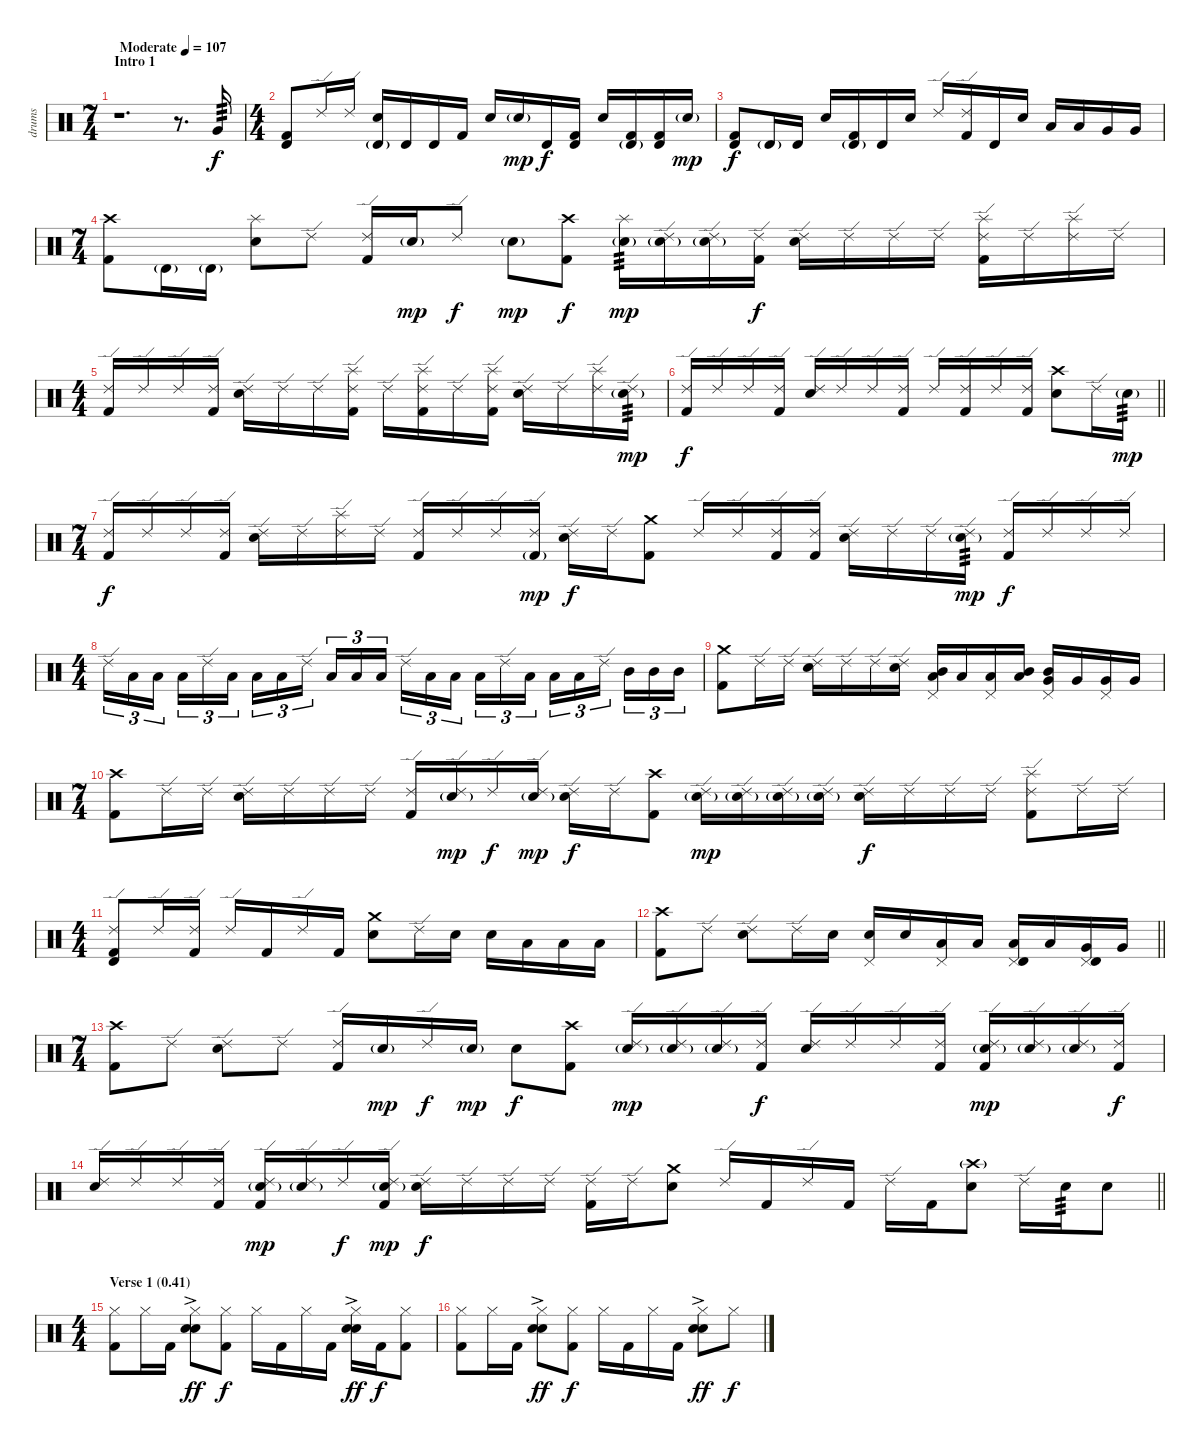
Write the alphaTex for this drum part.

\track ("drums" "drums") {instrument percussion}
\staff {score}
\articulation defaults
\ts (7 4)
\section ("" "Intro 1")
\tempo (107 "Moderate")
\clef neutral
\ks c
r.1{d dy f} r.8{d} "Very Low Tom (hit)".16{tp 3} |
\ts (4 4)
("Timbale high (hit)" "Kick (hit) 2").8 "Ride (edge) 2".16 "Ride (edge) 2".16 ("Timbale high (hit)"{g} "Electric Snare (hit)").16 "Timbale high (hit)".16 "Timbale high (hit)".16 "Kick (hit) 2".16 "Electric Snare (hit)".16 "Electric Snare (hit)"{g}.16{dy mp} "Timbale high (hit)".16{dy f} ("Timbale high (hit)" "Kick (hit) 2").16 "Electric Snare (hit)".16 ("Timbale high (hit)"{g} "Kick (hit) 2").16 ("Timbale high (hit)" "Kick (hit) 2").16 "Electric Snare (hit)"{g}.16{dy mp} |
("Timbale high (hit)" "Kick (hit) 2").8{dy f} "Timbale high (hit)"{g}.16 "Timbale high (hit)".16 "Electric Snare (hit)".16 ("Timbale high (hit)"{g} "Kick (hit) 2").16 "Timbale high (hit)".16 "Electric Snare (hit)".16 "Ride (edge) 2".16 ("Ride (edge) 2" "Kick (hit) 2").16 "Timbale high (hit)".16 "Electric Snare (hit)".16 "Low Tom (hit)".16 "Low Tom (hit)".16 "Very Low Tom (hit)".16 "Very Low Tom (hit)".16 |
\ts (7 4)
("Crash high (hit)" "Kick (hit) 2").8 "Timbale high (hit)"{g}.16 "Timbale high (hit)"{g}.16 ("Splash (hit)" "Electric Snare (hit)").8 "Ride (edge) 2".8 ("Ride (edge) 2" "Kick (hit) 2").16 "Electric Snare (hit)"{g}.16{dy mp} "Ride (edge) 2".8{dy f} "Electric Snare (hit)"{g}.8{dy mp} ("Crash high (hit)" "Kick (hit) 2").8{dy f} ("Splash (hit)" "Electric Snare (hit)"{g}).16{tp 3 dy mp} ("Ride (edge) 2" "Electric Snare (hit)"{g}).16 ("Ride (edge) 2" "Electric Snare (hit)"{g}).16 ("Ride (edge) 2" "Kick (hit) 2").16{dy f} ("Ride (edge) 2" "Electric Snare (hit)").16 "Ride (edge) 2".16 "Ride (edge) 2".16 "Ride (edge) 2".16 ("Ride (edge) 2" "Splash (hit)" "Kick (hit) 2").16 "Ride (edge) 2".16 ("Ride (edge) 2" "Splash (hit)").16 "Ride (edge) 2".16 |
\ts (4 4)
("Ride (edge) 2" "Kick (hit) 2").16 "Ride (edge) 2".16 "Ride (edge) 2".16 ("Ride (edge) 2" "Kick (hit) 2").16 ("Ride (edge) 2" "Electric Snare (hit)").16 "Ride (edge) 2".16 "Ride (edge) 2".16 ("Ride (edge) 2" "Splash (hit)" "Kick (hit) 2").16 "Ride (edge) 2".16 ("Ride (edge) 2" "Splash (hit)" "Kick (hit) 2").16 "Ride (edge) 2".16 ("Ride (edge) 2" "Splash (hit)" "Kick (hit) 2").16 ("Ride (edge) 2" "Electric Snare (hit)").16 "Ride (edge) 2".16 ("Ride (edge) 2" "Splash (hit)").16 ("Ride (edge) 2" "Electric Snare (hit)"{g}).16{tp 3 dy mp} |
\barLineRight lightlight
("Ride (edge) 2" "Kick (hit) 2").16{dy f} "Ride (edge) 2".16 "Ride (edge) 2".16 ("Ride (edge) 2" "Kick (hit) 2").16 ("Ride (edge) 2" "Electric Snare (hit)").16 "Ride (edge) 2".16 "Ride (edge) 2".16 ("Ride (edge) 2" "Kick (hit) 2").16 "Ride (edge) 2".16 ("Ride (edge) 2" "Kick (hit) 2").16 "Ride (edge) 2".16 ("Ride (edge) 2" "Kick (hit) 2").16 ("Crash high (hit)" "Electric Snare (hit)").8 "Ride (edge) 2".16 "Electric Snare (hit)"{g}.16{tp 3 dy mp} |
\ts (7 4)
("Ride (edge) 2" "Kick (hit) 2").16{dy f} "Ride (edge) 2".16 "Ride (edge) 2".16 ("Ride (edge) 2" "Kick (hit) 2").16 ("Ride (edge) 2" "Electric Snare (hit)").16 "Ride (edge) 2".16 ("Ride (edge) 2" "Splash (hit)").16 "Ride (edge) 2".16 ("Ride (edge) 2" "Kick (hit) 2").16 "Ride (edge) 2".16 "Ride (edge) 2".16 ("Ride (edge) 2" "Kick (hit) 2"{g}).16{dy mp} ("Ride (edge) 2" "Electric Snare (hit)").16{dy f} "Ride (edge) 2".16 ("Crash medium (hit)" "Kick (hit) 2").8 "Ride (edge) 2".16 "Ride (edge) 2".16 ("Ride (edge) 2" "Kick (hit) 2").16 ("Ride (edge) 2" "Kick (hit) 2").16 ("Ride (edge) 2" "Electric Snare (hit)").16 "Ride (edge) 2".16 "Ride (edge) 2".16 ("Ride (edge) 2" "Electric Snare (hit)"{g}).16{tp 3 dy mp} ("Ride (edge) 2" "Kick (hit) 2").16{dy f} "Ride (edge) 2".16 "Ride (edge) 2".16 "Ride (edge) 2".16 |
\ts (4 4)
"Ride (edge) 2".16{tu (3 2)} "Low Tom (hit)".16{tu (3 2)} "Low Tom (hit)".16{tu (3 2) beam splitsecondary} "Low Tom (hit)".16{tu (3 2)} "Ride (edge) 2".16{tu (3 2)} "Low Tom (hit)".16{tu (3 2)} "Low Tom (hit)".16{tu (3 2)} "Low Tom (hit)".16{tu (3 2)} "Ride (edge) 2".16{tu (3 2) beam splitsecondary} "Low Tom (hit)".16{tu (3 2)} "Low Tom (hit)".16{tu (3 2)} "Low Tom (hit)".16{tu (3 2)} "Ride (edge) 2".16{tu (3 2)} "Low Tom (hit)".16{tu (3 2)} "Low Tom (hit)".16{tu (3 2) beam splitsecondary} "Low Tom (hit)".16{tu (3 2)} "Ride (edge) 2".16{tu (3 2)} "Low Tom (hit)".16{tu (3 2)} "Low Tom (hit)".16{tu (3 2)} "Low Tom (hit)".16{tu (3 2)} "Ride (edge) 2".16{tu (3 2) beam splitsecondary} "Mid Tom (hit)".16{tu (3 2)} "Mid Tom (hit)".16{tu (3 2)} "Mid Tom (hit)".16{tu (3 2)} |
("Crash medium (hit)" "Kick (hit) 2").8 "Ride (edge) 2".16 "Ride (edge) 2".16 ("Ride (edge) 2" "Electric Snare (hit)").16 "Ride (edge) 2".16 "Ride (edge) 2".16 ("Ride (edge) 2" "Electric Snare (hit)").16 ("Pedal Hi-Hat (hit)" "Mid Tom (hit)" "Low Tom (hit)").16 "Low Tom (hit)".16 ("Pedal Hi-Hat (hit)" "Low Tom (hit)").16 ("Mid Tom (hit)" "Low Tom (hit)").16 ("Pedal Hi-Hat (hit)" "Mid Tom (hit)" "Very Low Tom (hit)").16 "Very Low Tom (hit)".16 ("Pedal Hi-Hat (hit)" "Very Low Tom (hit)").16 "Very Low Tom (hit)".16 |
\ts (7 4)
("Crash high (hit)" "Kick (hit) 2").8 "Ride (edge) 2".16 "Ride (edge) 2".16 ("Ride (edge) 2" "Electric Snare (hit)").16 "Ride (edge) 2".16 "Ride (edge) 2".16 "Ride (edge) 2".16 ("Ride (edge) 2" "Kick (hit) 2").16 ("Ride (edge) 2" "Electric Snare (hit)"{g}).16{dy mp} "Ride (edge) 2".16{dy f} ("Ride (edge) 2" "Electric Snare (hit)"{g}).16{dy mp} ("Ride (edge) 2" "Electric Snare (hit)").16{dy f} "Ride (edge) 2".16 ("Crash high (hit)" "Kick (hit) 2").8 ("Ride (edge) 2" "Electric Snare (hit)"{g}).16{dy mp} ("Ride (edge) 2" "Electric Snare (hit)"{g}).16 ("Ride (edge) 2" "Electric Snare (hit)"{g}).16 ("Ride (edge) 2" "Electric Snare (hit)"{g}).16 ("Ride (edge) 2" "Electric Snare (hit)").16{dy f} "Ride (edge) 2".16 "Ride (edge) 2".16 "Ride (edge) 2".16 ("Ride (edge) 2" "Splash (hit)" "Kick (hit) 2").8 "Ride (edge) 2".16 "Ride (edge) 2".16 |
\ts (4 4)
("Ride (edge) 2" "Timbale high (hit)" "Kick (hit) 2").8 "Ride (edge) 2".16 ("Ride (edge) 2" "Kick (hit) 2").16 "Ride (edge) 2".16 "Kick (hit) 2".16 "Ride (edge) 2".16 "Kick (hit) 2".16 ("Crash medium (hit)" "Electric Snare (hit)").8 "Ride (edge) 2".16 "Electric Snare (hit)".16 "Electric Snare (hit)".16 "Low Tom (hit)".16 "Low Tom (hit)".16 "Low Tom (hit)".16 |
\barLineRight lightlight
("Crash high (hit)" "Kick (hit) 2").8 "Ride (edge) 2".8 ("Ride (edge) 2" "Electric Snare (hit)").8 "Ride (edge) 2".16 "Electric Snare (hit)".16 ("Pedal Hi-Hat (hit)" "Electric Snare (hit)").16 "Electric Snare (hit)".16 ("Pedal Hi-Hat (hit)" "Low Tom (hit)").16 "Low Tom (hit)".16 ("Pedal Hi-Hat (hit)" "Timbale high (hit)" "Low Tom (hit)").16 "Low Tom (hit)".16 ("Pedal Hi-Hat (hit)" "Timbale high (hit)" "Very Low Tom (hit)").16 "Very Low Tom (hit)".16 |
\ts (7 4)
("Crash high (hit)" "Kick (hit) 2").8 "Ride (edge) 2".8 ("Ride (edge) 2" "Electric Snare (hit)").8 "Ride (edge) 2".8 ("Ride (edge) 2" "Kick (hit) 2").16 "Electric Snare (hit)"{g}.16{dy mp} "Ride (edge) 2".16{dy f} "Electric Snare (hit)"{g}.16{dy mp} "Electric Snare (hit)".8{dy f} ("Crash high (hit)" "Kick (hit) 2").8 ("Ride (edge) 2" "Electric Snare (hit)"{g}).16{dy mp} ("Ride (edge) 2" "Electric Snare (hit)"{g}).16 ("Ride (edge) 2" "Electric Snare (hit)"{g}).16 ("Ride (edge) 2" "Kick (hit) 2").16{dy f} ("Ride (edge) 2" "Electric Snare (hit)").16 "Ride (edge) 2".16 "Ride (edge) 2".16 ("Ride (edge) 2" "Kick (hit) 2").16 ("Ride (edge) 2" "Electric Snare (hit)"{g} "Kick (hit) 2").16{dy mp} ("Ride (edge) 2" "Electric Snare (hit)"{g}).16 ("Ride (edge) 2" "Electric Snare (hit)"{g}).16 ("Ride (edge) 2" "Kick (hit) 2").16{dy f} |
\barLineRight lightlight
("Ride (edge) 2" "Electric Snare (hit)").16 "Ride (edge) 2".16 "Ride (edge) 2".16 ("Ride (edge) 2" "Kick (hit) 2").16 ("Ride (edge) 2" "Electric Snare (hit)"{g} "Kick (hit) 2").16{dy mp} ("Ride (edge) 2" "Electric Snare (hit)"{g}).16 "Ride (edge) 2".16{dy f} ("Ride (edge) 2" "Electric Snare (hit)"{g} "Kick (hit) 2").16{dy mp} ("Ride (edge) 2" "Electric Snare (hit)").16{dy f} "Ride (edge) 2".16 "Ride (edge) 2".16 "Ride (edge) 2".16 ("Ride (edge) 2" "Kick (hit) 2").16 "Ride (edge) 2".16 ("Crash medium (hit)" "Electric Snare (hit)").8 "Ride (edge) 2".16 "Kick (hit) 2".16 "Ride (edge) 2".16 "Kick (hit) 2".16 "Ride (edge) 2".16 "Kick (hit) 2".16 ("Crash high (hit)"{g} "Electric Snare (hit)").8 "Ride (edge) 2".16 "Electric Snare (hit)".16{tp 3} "Electric Snare (hit)".8 |
\ts (4 4)
\section ("" "Verse 1 (0.41)")
("Hi-Hat (closed)" "Kick (hit) 2").8 "Hi-Hat (closed)".16 "Kick (hit) 2".16 ("Hi-Hat (closed)" "Hand Clap (hit)"{ac} "Electric Snare (hit)").8{dy ff} ("Hi-Hat (closed)" "Kick (hit) 2").8{dy f} "Hi-Hat (closed)".16 "Kick (hit) 2".16 "Hi-Hat (closed)".16 "Kick (hit) 2".16 ("Hi-Hat (closed)" "Hand Clap (hit)"{ac} "Electric Snare (hit)").16{dy ff} "Kick (hit) 2".16{dy f} ("Hi-Hat (closed)" "Kick (hit) 2").8 |
("Hi-Hat (closed)" "Kick (hit) 2").8 "Hi-Hat (closed)".16 "Kick (hit) 2".16 ("Hi-Hat (closed)" "Hand Clap (hit)"{ac} "Electric Snare (hit)").8{dy ff} ("Hi-Hat (closed)" "Kick (hit) 2").8{dy f} "Hi-Hat (closed)".16 "Kick (hit) 2".16 "Hi-Hat (closed)".16 "Kick (hit) 2".16 ("Hi-Hat (closed)" "Hand Clap (hit)"{ac} "Electric Snare (hit)").8{dy ff} "Hi-Hat (closed)".8{dy f}
